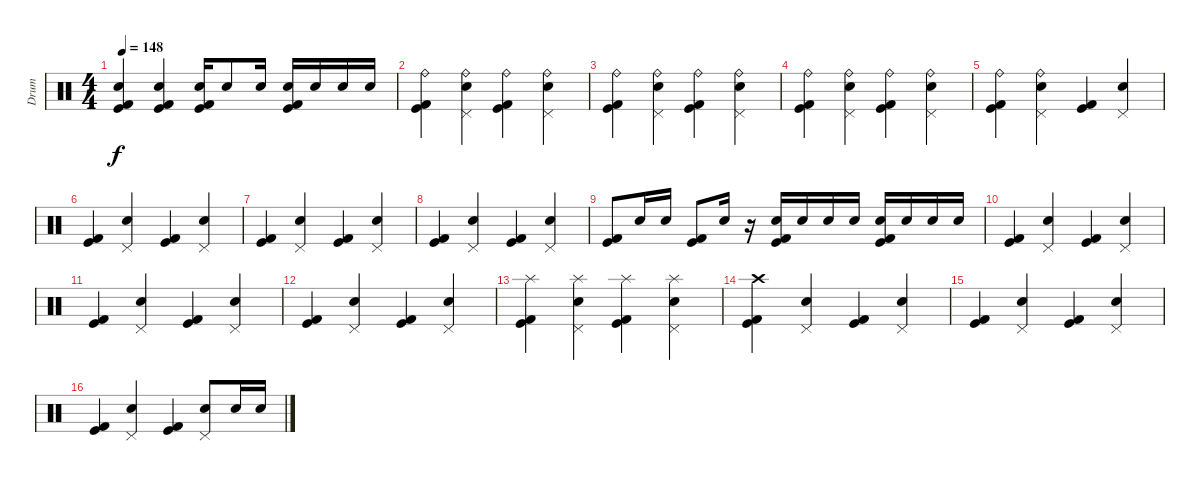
\track ("Drum" "Drum") {instrument percussion}
\staff {score}
\articulation defaults
\ts (4 4)
\tempo 148
\clef neutral
\ks c
("Electric Snare (hit)" "Kick (hit)" "Kick (hit) 2").4{dy f} ("Electric Snare (hit)" "Kick (hit)" "Kick (hit) 2").4 ("Electric Snare (hit)" "Kick (hit)" "Kick (hit) 2").16 "Electric Snare (hit)".8 "Electric Snare (hit)".16 ("Electric Snare (hit)" "Kick (hit)" "Kick (hit) 2").16 "Electric Snare (hit)".16 "Electric Snare (hit)".16 "Electric Snare (hit)".16 |
("Ride (bell)" "Kick (hit)" "Kick (hit) 2").4 ("Ride (bell)" "Pedal Hi-Hat (hit)" "Snare (hit) 2").4 ("Ride (bell)" "Kick (hit)" "Kick (hit) 2").4 ("Ride (bell)" "Pedal Hi-Hat (hit)" "Snare (hit) 2").4 |
("Ride (bell)" "Kick (hit)" "Kick (hit) 2").4 ("Ride (bell)" "Pedal Hi-Hat (hit)" "Snare (hit) 2").4 ("Ride (bell)" "Kick (hit)" "Kick (hit) 2").4 ("Ride (bell)" "Pedal Hi-Hat (hit)" "Snare (hit) 2").4 |
("Ride (bell)" "Kick (hit)" "Kick (hit) 2").4 ("Ride (bell)" "Pedal Hi-Hat (hit)" "Snare (hit) 2").4 ("Ride (bell)" "Kick (hit)" "Kick (hit) 2").4 ("Ride (bell)" "Pedal Hi-Hat (hit)" "Snare (hit) 2").4 |
("Ride (bell)" "Kick (hit)" "Kick (hit) 2").4 ("Ride (bell)" "Pedal Hi-Hat (hit)" "Snare (hit) 2").4 ("Kick (hit)" "Kick (hit) 2").4 ("Pedal Hi-Hat (hit)" "Snare (hit) 2").4 |
("Kick (hit)" "Kick (hit) 2").4 ("Pedal Hi-Hat (hit)" "Snare (hit) 2").4 ("Kick (hit)" "Kick (hit) 2").4 ("Pedal Hi-Hat (hit)" "Snare (hit) 2").4 |
("Kick (hit)" "Kick (hit) 2").4 ("Pedal Hi-Hat (hit)" "Snare (hit) 2").4 ("Kick (hit)" "Kick (hit) 2").4 ("Pedal Hi-Hat (hit)" "Snare (hit) 2").4 |
("Kick (hit)" "Kick (hit) 2").4 ("Pedal Hi-Hat (hit)" "Snare (hit) 2").4 ("Kick (hit)" "Kick (hit) 2").4 ("Pedal Hi-Hat (hit)" "Snare (hit) 2").4 |
("Kick (hit)" "Kick (hit) 2").8 "Snare (hit) 2".16 "Electric Snare (hit)".16 ("Kick (hit)" "Kick (hit) 2").8 "Electric Snare (hit)".16 r.16 ("Electric Snare (hit)" "Kick (hit)" "Kick (hit) 2").16 "Electric Snare (hit)".16 "Electric Snare (hit)".16 "Electric Snare (hit)".16 ("Electric Snare (hit)" "Kick (hit)" "Kick (hit) 2").16 "Electric Snare (hit)".16 "Electric Snare (hit)".16 "Electric Snare (hit)".16 |
("Kick (hit)" "Kick (hit) 2").4 ("Pedal Hi-Hat (hit)" "Snare (hit) 2").4 ("Kick (hit)" "Kick (hit) 2").4 ("Pedal Hi-Hat (hit)" "Snare (hit) 2").4 |
("Kick (hit)" "Kick (hit) 2").4 ("Pedal Hi-Hat (hit)" "Snare (hit) 2").4 ("Kick (hit)" "Kick (hit) 2").4 ("Pedal Hi-Hat (hit)" "Snare (hit) 2").4 |
("Kick (hit)" "Kick (hit) 2").4 ("Pedal Hi-Hat (hit)" "Snare (hit) 2").4 ("Kick (hit)" "Kick (hit) 2").4 ("Pedal Hi-Hat (hit)" "Snare (hit) 2").4 |
("Splash (hit)" "Kick (hit)" "Kick (hit) 2").4 ("Splash (hit)" "Pedal Hi-Hat (hit)" "Snare (hit) 2").4 ("Splash (hit)" "Kick (hit)" "Kick (hit) 2").4 ("Splash (hit)" "Pedal Hi-Hat (hit)" "Snare (hit) 2").4 |
("Crash high (hit)" "Kick (hit)" "Kick (hit) 2").4 ("Pedal Hi-Hat (hit)" "Snare (hit) 2").4 ("Kick (hit)" "Kick (hit) 2").4 ("Pedal Hi-Hat (hit)" "Snare (hit) 2").4 |
("Kick (hit)" "Kick (hit) 2").4 ("Pedal Hi-Hat (hit)" "Snare (hit) 2").4 ("Kick (hit)" "Kick (hit) 2").4 ("Pedal Hi-Hat (hit)" "Snare (hit) 2").4 |
("Kick (hit)" "Kick (hit) 2").4 ("Pedal Hi-Hat (hit)" "Snare (hit) 2").4 ("Kick (hit)" "Kick (hit) 2").4 ("Pedal Hi-Hat (hit)" "Snare (hit) 2").8 "Electric Snare (hit)".16 "Electric Snare (hit)".16
